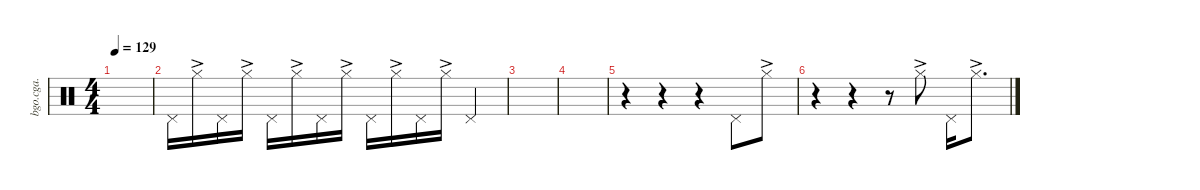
\defaultSystemsLayout 4
\hideDynamics
\bracketExtendMode nobrackets
\otherSystemsTrackNameOrientation horizontal
\track ("Alex's percussion" "bgo.cga.") {instrument percussion}
\staff {score}
\articulation defaults
\ts (4 4)
\tempo 129
\clef neutral
\ks c
|
"Pedal Hi-Hat (hit)".16 "Hi-Hat (closed)"{ac}.16 "Pedal Hi-Hat (hit)".16 "Hi-Hat (closed)"{ac}.16 "Pedal Hi-Hat (hit)".16 "Hi-Hat (closed)"{ac}.16 "Pedal Hi-Hat (hit)".16 "Hi-Hat (closed)"{ac}.16 "Pedal Hi-Hat (hit)".16 "Hi-Hat (closed)"{ac}.16 "Pedal Hi-Hat (hit)".16 "Hi-Hat (closed)"{ac}.16 "Pedal Hi-Hat (hit)".4 |
|
|
r.4 r.4 r.4 "Pedal Hi-Hat (hit)".8 "Hi-Hat (closed)"{ac}.8 |
r.4 r.4 r.8 "Hi-Hat (closed)"{ac}.8 "Pedal Hi-Hat (hit)".16 "Hi-Hat (closed)"{ac}.8{d}
